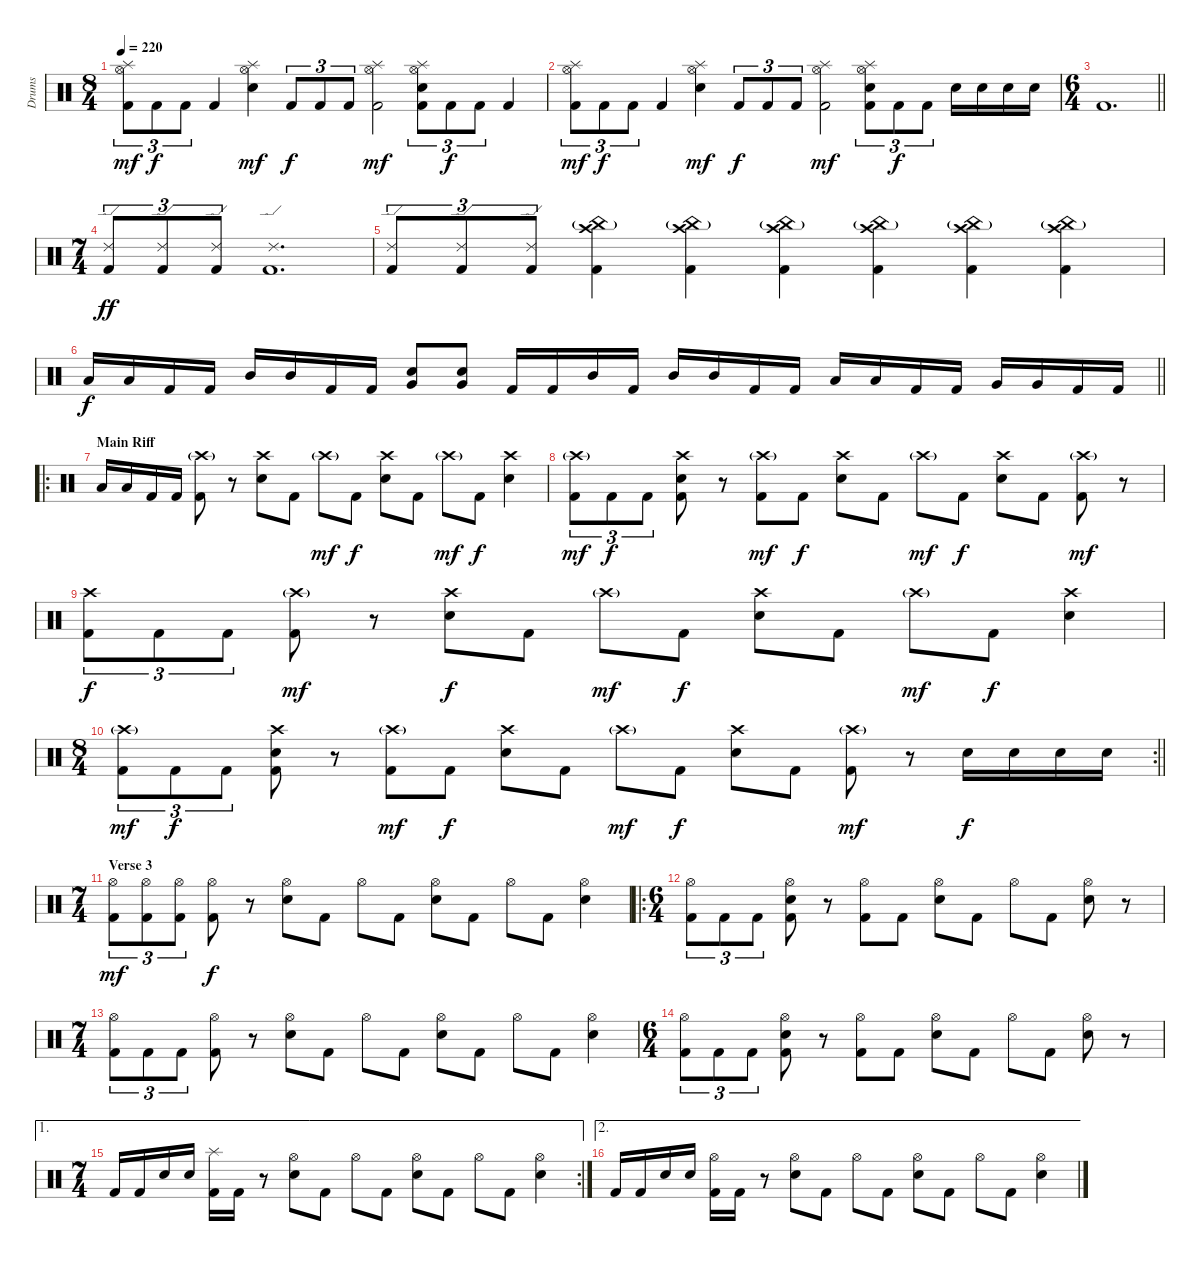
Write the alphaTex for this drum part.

\track ("Drums" "Drums") {instrument percussion}
\staff {score}
\articulation defaults
\ts (8 4)
\tempo 220
\clef neutral
\ks c
("Hi-Hat (open)" "Splash (hit)" "Kick (hit) 2").8{tu (3 2) dy mf} "Kick (hit) 2".8{tu (3 2) dy f} "Kick (hit) 2".8{tu (3 2)} "Kick (hit) 2".4 ("Hi-Hat (open)" "Splash (hit)" "Electric Snare (hit)").4{dy mf} "Kick (hit) 2".8{tu (3 2) dy f} "Kick (hit) 2".8{tu (3 2)} "Kick (hit) 2".8{tu (3 2)} ("Hi-Hat (open)" "Splash (hit)" "Kick (hit) 2").2{dy mf} ("Hi-Hat (open)" "Splash (hit)" "Electric Snare (hit)" "Kick (hit) 2").8{tu (3 2)} "Kick (hit) 2".8{tu (3 2) dy f} "Kick (hit) 2".8{tu (3 2)} "Kick (hit) 2".4 |
("Hi-Hat (open)" "Splash (hit)" "Kick (hit) 2").8{tu (3 2) dy mf} "Kick (hit) 2".8{tu (3 2) dy f} "Kick (hit) 2".8{tu (3 2)} "Kick (hit) 2".4 ("Hi-Hat (open)" "Splash (hit)" "Electric Snare (hit)").4{dy mf} "Kick (hit) 2".8{tu (3 2) dy f} "Kick (hit) 2".8{tu (3 2)} "Kick (hit) 2".8{tu (3 2)} ("Hi-Hat (open)" "Splash (hit)" "Kick (hit) 2").2{dy mf} ("Hi-Hat (open)" "Splash (hit)" "Electric Snare (hit)" "Kick (hit) 2").8{tu (3 2)} "Kick (hit) 2".8{tu (3 2) dy f} "Kick (hit) 2".8{tu (3 2)} "Electric Snare (hit)".16 "Electric Snare (hit)".16 "Electric Snare (hit)".16 "Electric Snare (hit)".16 |
\ts (6 4)
\barLineRight lightlight "Kick (hit) 2".1{d}
|
\ts (7 4)
("Ride (edge) 2" "Kick (hit) 2").8{tu (3 2) dy ff} ("Ride (edge) 2" "Kick (hit) 2").8{tu (3 2)} ("Ride (edge) 2" "Kick (hit) 2").8{tu (3 2)} ("Ride (edge) 2" "Kick (hit) 2").1{d} |
("Ride (edge) 2" "Kick (hit) 2").8{tu (3 2)} ("Ride (edge) 2" "Kick (hit) 2").8{tu (3 2)} ("Ride (edge) 2" "Kick (hit) 2").8{tu (3 2)} ("China (hit)"{g} "Crash high (hit)" "Kick (hit) 2").4 ("China (hit)"{g} "Crash high (hit)" "Kick (hit) 2").4 ("China (hit)"{g} "Crash high (hit)" "Kick (hit) 2").4 ("China (hit)"{g} "Crash high (hit)" "Kick (hit) 2").4 ("China (hit)"{g} "Crash high (hit)" "Kick (hit) 2").4 ("China (hit)"{g} "Crash high (hit)" "Kick (hit) 2").4 |
\barLineRight lightlight "Low Tom (hit)".16{dy f} "Low Tom (hit)".16 "Kick (hit) 2".16 "Kick (hit) 2".16 "Mid Tom (hit)".16 "Mid Tom (hit)".16 "Kick (hit) 2".16 "Kick (hit) 2".16
("Very Low Tom (hit)" "Electric Snare (hit)").8 ("Very Low Tom (hit)" "Electric Snare (hit)").8 "Kick (hit) 2".16 "Kick (hit) 2".16 "Mid Tom (hit)".16 "Kick (hit) 2".16 "Mid Tom (hit)".16 "Mid Tom (hit)".16 "Kick (hit) 2".16 "Kick (hit) 2".16 "Low Tom (hit)".16 "Low Tom (hit)".16 "Kick (hit) 2".16 "Kick (hit) 2".16 "Very Low Tom (hit)".16 "Very Low Tom (hit)".16 "Kick (hit) 2".16 "Kick (hit) 2".16 |
\ro
\section ("" "Main Riff")
"Low Floor Tom (hit)".16 "Low Floor Tom (hit)".16 "Kick (hit) 2".16 "Kick (hit) 2".16 ("Crash high (hit)"{g} "Kick (hit) 2").8 r.8 ("Crash high (hit)" "Electric Snare (hit)").8 "Kick (hit) 2".8 "Crash high (hit)"{g}.8{dy mf} "Kick (hit) 2".8{dy f} ("Crash high (hit)" "Electric Snare (hit)").8 "Kick (hit) 2".8 "Crash high (hit)"{g}.8{dy mf} "Kick (hit) 2".8{dy f} ("Crash high (hit)" "Electric Snare (hit)").4 |
("Crash high (hit)"{g} "Kick (hit) 2").8{tu (3 2) dy mf} "Kick (hit) 2".8{tu (3 2) dy f} "Kick (hit) 2".8{tu (3 2)} ("Crash high (hit)" "Electric Snare (hit)" "Kick (hit) 2").8 r.8 ("Crash high (hit)"{g} "Kick (hit) 2").8{dy mf} "Kick (hit) 2".8{dy f} ("Crash high (hit)" "Electric Snare (hit)").8 "Kick (hit) 2".8 "Crash high (hit)"{g}.8{dy mf} "Kick (hit) 2".8{dy f} ("Crash high (hit)" "Electric Snare (hit)").8 "Kick (hit) 2".8 ("Crash high (hit)"{g} "Kick (hit) 2").8{dy mf} r.8 |
("Crash high (hit)" "Kick (hit) 2").8{tu (3 2) dy f} "Kick (hit) 2".8{tu (3 2)} "Kick (hit) 2".8{tu (3 2)} ("Crash high (hit)"{g} "Kick (hit) 2").8{dy mf} r.8 ("Crash high (hit)" "Electric Snare (hit)").8{dy f} "Kick (hit) 2".8 "Crash high (hit)"{g}.8{dy mf} "Kick (hit) 2".8{dy f} ("Crash high (hit)" "Electric Snare (hit)").8 "Kick (hit) 2".8 "Crash high (hit)"{g}.8{dy mf} "Kick (hit) 2".8{dy f} ("Crash high (hit)" "Electric Snare (hit)").4 |
\rc 2
\ts (8 4)
\barLineRight lightlight
("Crash high (hit)"{g} "Kick (hit) 2").8{tu (3 2) dy mf} "Kick (hit) 2".8{tu (3 2) dy f} "Kick (hit) 2".8{tu (3 2)} ("Crash high (hit)" "Electric Snare (hit)" "Kick (hit) 2").8 r.8 ("Crash high (hit)"{g} "Kick (hit) 2").8{dy mf} "Kick (hit) 2".8{dy f} ("Crash high (hit)" "Electric Snare (hit)").8 "Kick (hit) 2".8 "Crash high (hit)"{g}.8{dy mf} "Kick (hit) 2".8{dy f} ("Crash high (hit)" "Electric Snare (hit)").8 "Kick (hit) 2".8 ("Crash high (hit)"{g} "Kick (hit) 2").8{dy mf} r.8 "Electric Snare (hit)".16{dy f} "Electric Snare (hit)".16 "Electric Snare (hit)".16 "Electric Snare (hit)".16 |
\ts (7 4)
\section ("" "Verse 3")
("Hi-Hat (open)" "Kick (hit) 2").8{tu (3 2) dy mf} ("Hi-Hat (open)" "Kick (hit) 2").8{tu (3 2)} ("Hi-Hat (open)" "Kick (hit) 2").8{tu (3 2)} ("Hi-Hat (open)" "Kick (hit) 2").8{dy f} r.8 ("Hi-Hat (open)" "Electric Snare (hit)").8 "Kick (hit) 2".8 "Hi-Hat (open)".8 "Kick (hit) 2".8 ("Hi-Hat (open)" "Electric Snare (hit)").8 "Kick (hit) 2".8 "Hi-Hat (open)".8 "Kick (hit) 2".8 ("Hi-Hat (open)" "Electric Snare (hit)").4 |
\ro
\ts (6 4)
("Hi-Hat (open)" "Kick (hit) 2").8{tu (3 2)} "Kick (hit) 2".8{tu (3 2)} "Kick (hit) 2".8{tu (3 2)} ("Hi-Hat (open)" "Electric Snare (hit)" "Kick (hit) 2").8 r.8 ("Hi-Hat (open)" "Kick (hit) 2").8 "Kick (hit) 2".8 ("Hi-Hat (open)" "Electric Snare (hit)").8 "Kick (hit) 2".8 "Hi-Hat (open)".8 "Kick (hit) 2".8 ("Hi-Hat (open)" "Electric Snare (hit)").8 r.8 |
\ts (7 4)
("Hi-Hat (open)" "Kick (hit) 2").8{tu (3 2)} "Kick (hit) 2".8{tu (3 2)} "Kick (hit) 2".8{tu (3 2)} ("Hi-Hat (open)" "Kick (hit) 2").8 r.8 ("Hi-Hat (open)" "Electric Snare (hit)").8 "Kick (hit) 2".8 "Hi-Hat (open)".8 "Kick (hit) 2".8 ("Hi-Hat (open)" "Electric Snare (hit)").8 "Kick (hit) 2".8 "Hi-Hat (open)".8 "Kick (hit) 2".8 ("Hi-Hat (open)" "Electric Snare (hit)").4 |
\ts (6 4)
("Hi-Hat (open)" "Kick (hit) 2").8{tu (3 2)} "Kick (hit) 2".8{tu (3 2)} "Kick (hit) 2".8{tu (3 2)} ("Hi-Hat (open)" "Electric Snare (hit)" "Kick (hit) 2").8 r.8 ("Hi-Hat (open)" "Kick (hit) 2").8 "Kick (hit) 2".8 ("Hi-Hat (open)" "Electric Snare (hit)").8 "Kick (hit) 2".8 "Hi-Hat (open)".8 "Kick (hit) 2".8 ("Hi-Hat (open)" "Electric Snare (hit)").8 r.8 |
\ae 1
\rc 2
\ts (7 4)
"Kick (hit) 2".16 "Kick (hit) 2".16 "Electric Snare (hit)".16 "Electric Snare (hit)".16 ("Splash (hit)" "Kick (hit) 2").16 "Kick (hit) 2".16 r.8 ("Hi-Hat (open)" "Electric Snare (hit)").8 "Kick (hit) 2".8 "Hi-Hat (open)".8 "Kick (hit) 2".8 ("Hi-Hat (open)" "Electric Snare (hit)").8 "Kick (hit) 2".8 "Hi-Hat (open)".8 "Kick (hit) 2".8 ("Hi-Hat (open)" "Electric Snare (hit)").4 |
\ae 2 "Kick (hit) 2".16 "Kick (hit) 2".16 "Electric Snare (hit)".16 "Electric Snare (hit)".16
("Hi-Hat (open)" "Kick (hit) 2").16 "Kick (hit) 2".16 r.8 ("Hi-Hat (open)" "Electric Snare (hit)").8 "Kick (hit) 2".8 "Hi-Hat (open)".8 "Kick (hit) 2".8 ("Hi-Hat (open)" "Electric Snare (hit)").8 "Kick (hit) 2".8 "Hi-Hat (open)".8 "Kick (hit) 2".8 ("Hi-Hat (open)" "Electric Snare (hit)").4
